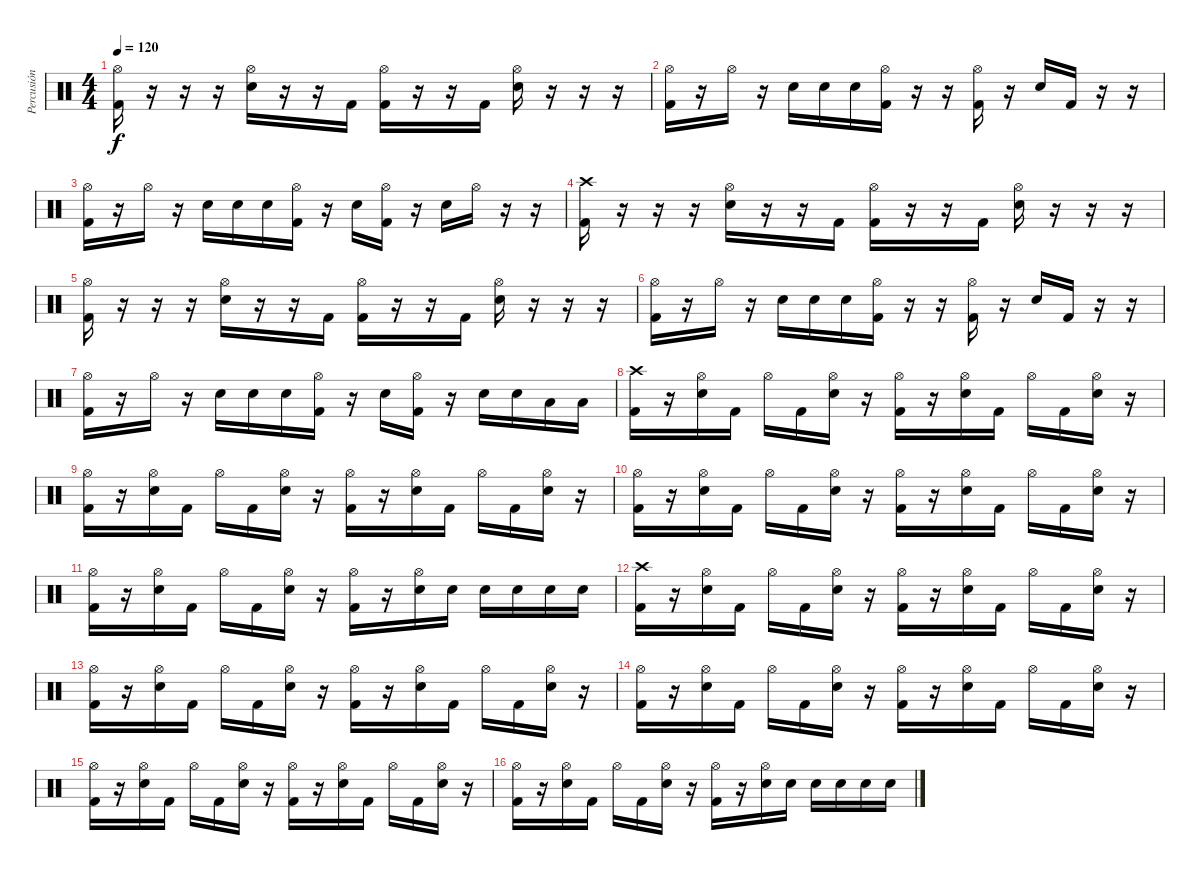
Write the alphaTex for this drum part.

\track ("Percusión" "Percusión") {instrument percussion}
\staff {score}
\articulation defaults
\ts (4 4)
\tempo 120
\clef neutral
\ks c
("Hi-Hat (open)" "Kick (hit) 2").16{dy f} r.16 r.16 r.16 ("Hi-Hat (open)" "Electric Snare (hit)").16 r.16 r.16 "Kick (hit) 2".16 ("Hi-Hat (open)" "Kick (hit) 2").16 r.16 r.16 "Kick (hit) 2".16 ("Hi-Hat (open)" "Electric Snare (hit)").16 r.16 r.16 r.16 |
("Hi-Hat (open)" "Kick (hit) 2").16 r.16 "Hi-Hat (open)".16 r.16 "Electric Snare (hit)".16 "Electric Snare (hit)".16 "Electric Snare (hit)".16 ("Hi-Hat (open)" "Kick (hit) 2").16 r.16 r.16 ("Hi-Hat (open)" "Kick (hit) 2").16 r.16 "Electric Snare (hit)".16 "Kick (hit) 2".16 r.16 r.16 |
("Hi-Hat (open)" "Kick (hit) 2").16 r.16 "Hi-Hat (open)".16 r.16 "Electric Snare (hit)".16 "Electric Snare (hit)".16 "Electric Snare (hit)".16 ("Hi-Hat (open)" "Kick (hit) 2").16 r.16 "Electric Snare (hit)".16 ("Hi-Hat (open)" "Kick (hit) 2").16 r.16 "Electric Snare (hit)".16 "Hi-Hat (open)".16 r.16 r.16 |
("Crash high (hit)" "Kick (hit) 2").16 r.16 r.16 r.16 ("Hi-Hat (open)" "Electric Snare (hit)").16 r.16 r.16 "Kick (hit) 2".16 ("Hi-Hat (open)" "Kick (hit) 2").16 r.16 r.16 "Kick (hit) 2".16 ("Hi-Hat (open)" "Electric Snare (hit)").16 r.16 r.16 r.16 |
("Hi-Hat (open)" "Kick (hit) 2").16 r.16 r.16 r.16 ("Hi-Hat (open)" "Electric Snare (hit)").16 r.16 r.16 "Kick (hit) 2".16 ("Hi-Hat (open)" "Kick (hit) 2").16 r.16 r.16 "Kick (hit) 2".16 ("Hi-Hat (open)" "Electric Snare (hit)").16 r.16 r.16 r.16 |
("Hi-Hat (open)" "Kick (hit) 2").16 r.16 "Hi-Hat (open)".16 r.16 "Electric Snare (hit)".16 "Electric Snare (hit)".16 "Electric Snare (hit)".16 ("Hi-Hat (open)" "Kick (hit) 2").16 r.16 r.16 ("Hi-Hat (open)" "Kick (hit) 2").16 r.16 "Electric Snare (hit)".16 "Kick (hit) 2".16 r.16 r.16 |
("Hi-Hat (open)" "Kick (hit) 2").16 r.16 "Hi-Hat (open)".16 r.16 "Electric Snare (hit)".16 "Electric Snare (hit)".16 "Electric Snare (hit)".16 ("Hi-Hat (open)" "Kick (hit) 2").16 r.16 "Electric Snare (hit)".16 ("Hi-Hat (open)" "Kick (hit) 2").16 r.16 "Electric Snare (hit)".16 "Electric Snare (hit)".16 "Low Tom (hit)".16 "Low Tom (hit)".16 |
("Crash high (hit)" "Kick (hit) 2").16 r.16 ("Hi-Hat (open)" "Electric Snare (hit)").16 "Kick (hit) 2".16 "Hi-Hat (open)".16 "Kick (hit) 2".16 ("Hi-Hat (open)" "Electric Snare (hit)").16 r.16 ("Hi-Hat (open)" "Kick (hit) 2").16 r.16 ("Hi-Hat (open)" "Electric Snare (hit)").16 "Kick (hit) 2".16 "Hi-Hat (open)".16 "Kick (hit) 2".16 ("Hi-Hat (open)" "Electric Snare (hit)").16 r.16 |
("Hi-Hat (open)" "Kick (hit) 2").16 r.16 ("Hi-Hat (open)" "Electric Snare (hit)").16 "Kick (hit) 2".16 "Hi-Hat (open)".16 "Kick (hit) 2".16 ("Hi-Hat (open)" "Electric Snare (hit)").16 r.16 ("Hi-Hat (open)" "Kick (hit) 2").16 r.16 ("Hi-Hat (open)" "Electric Snare (hit)").16 "Kick (hit) 2".16 "Hi-Hat (open)".16 "Kick (hit) 2".16 ("Hi-Hat (open)" "Electric Snare (hit)").16 r.16 |
("Hi-Hat (open)" "Kick (hit) 2").16 r.16 ("Hi-Hat (open)" "Electric Snare (hit)").16 "Kick (hit) 2".16 "Hi-Hat (open)".16 "Kick (hit) 2".16 ("Hi-Hat (open)" "Electric Snare (hit)").16 r.16 ("Hi-Hat (open)" "Kick (hit) 2").16 r.16 ("Hi-Hat (open)" "Electric Snare (hit)").16 "Kick (hit) 2".16 "Hi-Hat (open)".16 "Kick (hit) 2".16 ("Hi-Hat (open)" "Electric Snare (hit)").16 r.16 |
("Hi-Hat (open)" "Kick (hit) 2").16 r.16 ("Hi-Hat (open)" "Electric Snare (hit)").16 "Kick (hit) 2".16 "Hi-Hat (open)".16 "Kick (hit) 2".16 ("Hi-Hat (open)" "Electric Snare (hit)").16 r.16 ("Hi-Hat (open)" "Kick (hit) 2").16 r.16 ("Hi-Hat (open)" "Electric Snare (hit)").16 "Electric Snare (hit)".16 "Electric Snare (hit)".16 "Electric Snare (hit)".16 "Electric Snare (hit)".16 "Electric Snare (hit)".16 |
("Crash high (hit)" "Kick (hit) 2").16 r.16 ("Hi-Hat (open)" "Electric Snare (hit)").16 "Kick (hit) 2".16 "Hi-Hat (open)".16 "Kick (hit) 2".16 ("Hi-Hat (open)" "Electric Snare (hit)").16 r.16 ("Hi-Hat (open)" "Kick (hit) 2").16 r.16 ("Hi-Hat (open)" "Electric Snare (hit)").16 "Kick (hit) 2".16 "Hi-Hat (open)".16 "Kick (hit) 2".16 ("Hi-Hat (open)" "Electric Snare (hit)").16 r.16 |
("Hi-Hat (open)" "Kick (hit) 2").16 r.16 ("Hi-Hat (open)" "Electric Snare (hit)").16 "Kick (hit) 2".16 "Hi-Hat (open)".16 "Kick (hit) 2".16 ("Hi-Hat (open)" "Electric Snare (hit)").16 r.16 ("Hi-Hat (open)" "Kick (hit) 2").16 r.16 ("Hi-Hat (open)" "Electric Snare (hit)").16 "Kick (hit) 2".16 "Hi-Hat (open)".16 "Kick (hit) 2".16 ("Hi-Hat (open)" "Electric Snare (hit)").16 r.16 |
("Hi-Hat (open)" "Kick (hit) 2").16 r.16 ("Hi-Hat (open)" "Electric Snare (hit)").16 "Kick (hit) 2".16 "Hi-Hat (open)".16 "Kick (hit) 2".16 ("Hi-Hat (open)" "Electric Snare (hit)").16 r.16 ("Hi-Hat (open)" "Kick (hit) 2").16 r.16 ("Hi-Hat (open)" "Electric Snare (hit)").16 "Kick (hit) 2".16 "Hi-Hat (open)".16 "Kick (hit) 2".16 ("Hi-Hat (open)" "Electric Snare (hit)").16 r.16 |
("Hi-Hat (open)" "Kick (hit) 2").16 r.16 ("Hi-Hat (open)" "Electric Snare (hit)").16 "Kick (hit) 2".16 "Hi-Hat (open)".16 "Kick (hit) 2".16 ("Hi-Hat (open)" "Electric Snare (hit)").16 r.16 ("Hi-Hat (open)" "Kick (hit) 2").16 r.16 ("Hi-Hat (open)" "Electric Snare (hit)").16 "Kick (hit) 2".16 "Hi-Hat (open)".16 "Kick (hit) 2".16 ("Hi-Hat (open)" "Electric Snare (hit)").16 r.16 |
("Hi-Hat (open)" "Kick (hit) 2").16 r.16 ("Hi-Hat (open)" "Electric Snare (hit)").16 "Kick (hit) 2".16 "Hi-Hat (open)".16 "Kick (hit) 2".16 ("Hi-Hat (open)" "Electric Snare (hit)").16 r.16 ("Hi-Hat (open)" "Kick (hit) 2").16 r.16 ("Hi-Hat (open)" "Electric Snare (hit)").16 "Electric Snare (hit)".16 "Electric Snare (hit)".16 "Electric Snare (hit)".16 "Electric Snare (hit)".16 "Electric Snare (hit)".16
